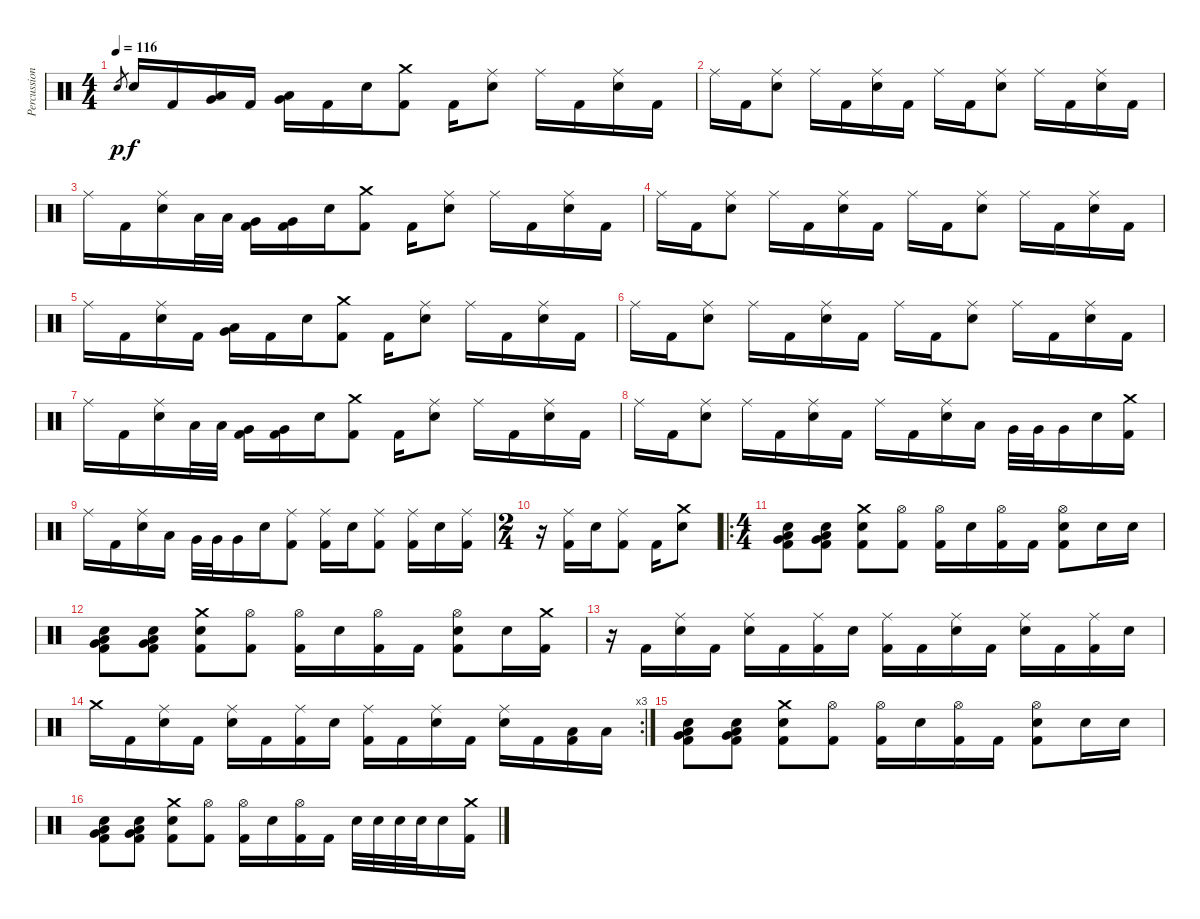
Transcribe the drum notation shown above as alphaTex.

\track ("Percussion" "Percussion") {instrument percussion}
\staff {score}
\articulation defaults
\ts (4 4)
\tempo 116
\clef neutral
\ks c "Electric Snare (hit)".8{gr dy p} "Electric Snare (hit)".16{dy f} "Kick (hit) 2".16
("Low Tom (hit)" "Very Low Tom (hit)").16 "Kick (hit) 2".16 ("Very Low Tom (hit)" "Low Tom (hit)").16 "Kick (hit) 2".16 "Electric Snare (hit)".16 ("Crash medium (hit)" "Kick (hit) 2").8 "Kick (hit) 2".16 ("Ride (middle)" "Electric Snare (hit)").8 "Ride (middle)".16 "Kick (hit) 2".16 ("Ride (middle)" "Electric Snare (hit)").16 "Kick (hit) 2".16 |
"Ride (middle)".16 "Kick (hit) 2".16 ("Ride (middle)" "Electric Snare (hit)").8 "Ride (middle)".16 "Kick (hit) 2".16 ("Ride (middle)" "Electric Snare (hit)").16 "Kick (hit) 2".16 "Ride (middle)".16 "Kick (hit) 2".16 ("Ride (middle)" "Electric Snare (hit)").8 "Ride (middle)".16 "Kick (hit) 2".16 ("Ride (middle)" "Electric Snare (hit)").16 "Kick (hit) 2".16 |
"Ride (middle)".16 "Kick (hit) 2".16 ("Ride (middle)" "Electric Snare (hit)").16 "Low Tom (hit)".32 "Low Tom (hit)".32 ("Very Low Tom (hit)" "Kick (hit) 2").16 ("Very Low Tom (hit)" "Kick (hit) 2").16 "Electric Snare (hit)".16 ("Crash medium (hit)" "Kick (hit) 2").8 "Kick (hit) 2".16 ("Ride (middle)" "Electric Snare (hit)").8 "Ride (middle)".16 "Kick (hit) 2".16 ("Ride (middle)" "Electric Snare (hit)").16 "Kick (hit) 2".16 |
"Ride (middle)".16 "Kick (hit) 2".16 ("Ride (middle)" "Electric Snare (hit)").8 "Ride (middle)".16 "Kick (hit) 2".16 ("Ride (middle)" "Electric Snare (hit)").16 "Kick (hit) 2".16 "Ride (middle)".16 "Kick (hit) 2".16 ("Ride (middle)" "Electric Snare (hit)").8 "Ride (middle)".16 "Kick (hit) 2".16 ("Ride (middle)" "Electric Snare (hit)").16 "Kick (hit) 2".16 |
"Ride (middle)".16 "Kick (hit) 2".16 ("Ride (middle)" "Electric Snare (hit)").16 "Kick (hit) 2".16 ("Low Tom (hit)" "Very Low Tom (hit)").16 "Kick (hit) 2".16 "Electric Snare (hit)".16 ("Crash medium (hit)" "Kick (hit) 2").8 "Kick (hit) 2".16 ("Ride (middle)" "Electric Snare (hit)").8 "Ride (middle)".16 "Kick (hit) 2".16 ("Ride (middle)" "Electric Snare (hit)").16 "Kick (hit) 2".16 |
"Ride (middle)".16 "Kick (hit) 2".16 ("Ride (middle)" "Electric Snare (hit)").8 "Ride (middle)".16 "Kick (hit) 2".16 ("Ride (middle)" "Electric Snare (hit)").16 "Kick (hit) 2".16 "Ride (middle)".16 "Kick (hit) 2".16 ("Ride (middle)" "Electric Snare (hit)").8 "Ride (middle)".16 "Kick (hit) 2".16 ("Ride (middle)" "Electric Snare (hit)").16 "Kick (hit) 2".16 |
"Ride (middle)".16 "Kick (hit) 2".16 ("Ride (middle)" "Electric Snare (hit)").16 "Low Tom (hit)".32 "Low Tom (hit)".32 ("Very Low Tom (hit)" "Kick (hit) 2").16 ("Very Low Tom (hit)" "Kick (hit) 2").16 "Electric Snare (hit)".16 ("Crash medium (hit)" "Kick (hit) 2").8 "Kick (hit) 2".16 ("Ride (middle)" "Electric Snare (hit)").8 "Ride (middle)".16 "Kick (hit) 2".16 ("Ride (middle)" "Electric Snare (hit)").16 "Kick (hit) 2".16 |
"Ride (middle)".16 "Kick (hit) 2".16 ("Ride (middle)" "Electric Snare (hit)").8 "Ride (middle)".16 "Kick (hit) 2".16 ("Ride (middle)" "Electric Snare (hit)").16 "Kick (hit) 2".16 "Ride (middle)".16 "Kick (hit) 2".16 ("Ride (middle)" "Electric Snare (hit)").16 "Low Tom (hit)".16 "Very Low Tom (hit)".32 "Very Low Tom (hit)".32 "Very Low Tom (hit)".16 "Electric Snare (hit)".16 ("Crash medium (hit)" "Kick (hit) 2").16 |
"Ride (middle)".16 "Kick (hit) 2".16 ("Ride (middle)" "Electric Snare (hit)").16 "Low Tom (hit)".16 "Very Low Tom (hit)".32 "Very Low Tom (hit)".32 "Very Low Tom (hit)".16 "Electric Snare (hit)".16 ("Ride (middle)" "Kick (hit) 2").8 ("Ride (middle)" "Kick (hit) 2").16 "Electric Snare (hit)".16 ("Ride (middle)" "Kick (hit) 2").8 ("Ride (middle)" "Kick (hit) 2").16 "Electric Snare (hit)".16 ("Ride (middle)" "Kick (hit) 2").16 |
\ts (2 4)
r.16 ("Ride (middle)" "Kick (hit) 2").16 "Electric Snare (hit)".16 ("Ride (middle)" "Kick (hit) 2").8 "Kick (hit) 2".16 ("Crash medium (hit)" "Electric Snare (hit)").8 |
\ro
\ts (4 4)
("Low Floor Tom (hit)" "Electric Snare (hit)" "Very Low Tom (hit)" "Kick (hit) 2").8 ("Low Floor Tom (hit)" "Electric Snare (hit)" "Very Low Tom (hit)" "Kick (hit) 2").8 ("Crash medium (hit)" "Electric Snare (hit)" "Kick (hit) 2").8 ("Hi-Hat (open)" "Kick (hit) 2").8 ("Hi-Hat (open)" "Kick (hit) 2").16 "Electric Snare (hit)".16 ("Hi-Hat (open)" "Kick (hit) 2").16 "Kick (hit) 2".16 ("Hi-Hat (open)" "Electric Snare (hit)" "Kick (hit) 2").8 "Electric Snare (hit)".16 "Electric Snare (hit)".16 |
("Electric Snare (hit)" "Low Floor Tom (hit)" "Very Low Tom (hit)" "Kick (hit) 2").8 ("Electric Snare (hit)" "Low Floor Tom (hit)" "Very Low Tom (hit)" "Kick (hit) 2").8 ("Crash medium (hit)" "Electric Snare (hit)" "Kick (hit) 2").8 ("Hi-Hat (open)" "Kick (hit) 2").8 ("Hi-Hat (open)" "Kick (hit) 2").16 "Electric Snare (hit)".16 ("Hi-Hat (open)" "Kick (hit) 2").16 "Kick (hit) 2".16 ("Hi-Hat (open)" "Electric Snare (hit)" "Kick (hit) 2").8 "Electric Snare (hit)".16 ("Crash medium (hit)" "Kick (hit) 2").16 |
r.16 "Kick (hit) 2".16 ("Ride (middle)" "Electric Snare (hit)").16 "Kick (hit) 2".16 ("Ride (middle)" "Electric Snare (hit)").16 "Kick (hit) 2".16 ("Ride (middle)" "Kick (hit) 2").16 "Electric Snare (hit)".16 ("Ride (middle)" "Kick (hit) 2").16 "Kick (hit) 2".16 ("Ride (middle)" "Electric Snare (hit)").16 "Kick (hit) 2".16 ("Ride (middle)" "Electric Snare (hit)").16 "Kick (hit) 2".16 ("Ride (middle)" "Kick (hit) 2").16 "Electric Snare (hit)".16 |
\rc 3 "Crash medium (hit)".16 "Kick (hit) 2".16
("Ride (middle)" "Electric Snare (hit)").16 "Kick (hit) 2".16 ("Ride (middle)" "Electric Snare (hit)").16 "Kick (hit) 2".16 ("Ride (middle)" "Kick (hit) 2").16 "Electric Snare (hit)".16 ("Ride (middle)" "Kick (hit) 2").16 "Kick (hit) 2".16 ("Ride (middle)" "Electric Snare (hit)").16 "Kick (hit) 2".16 ("Ride (middle)" "Electric Snare (hit)").16 "Kick (hit) 2".16 ("Low Tom (hit)" "Kick (hit) 2").16 "Low Tom (hit)".16 |
("Electric Snare (hit)" "Low Floor Tom (hit)" "Very Low Tom (hit)" "Kick (hit) 2").8 ("Electric Snare (hit)" "Low Floor Tom (hit)" "Very Low Tom (hit)" "Kick (hit) 2").8 ("Crash medium (hit)" "Electric Snare (hit)" "Kick (hit) 2").8 ("Hi-Hat (open)" "Kick (hit) 2").8 ("Hi-Hat (open)" "Kick (hit) 2").16 "Electric Snare (hit)".16 ("Hi-Hat (open)" "Kick (hit) 2").16 "Kick (hit) 2".16 ("Hi-Hat (open)" "Electric Snare (hit)" "Kick (hit) 2").8 "Electric Snare (hit)".16 "Electric Snare (hit)".16 |
("Electric Snare (hit)" "Low Floor Tom (hit)" "Very Low Tom (hit)" "Kick (hit) 2").8 ("Electric Snare (hit)" "Low Floor Tom (hit)" "Very Low Tom (hit)" "Kick (hit) 2").8 ("Crash medium (hit)" "Electric Snare (hit)" "Kick (hit) 2").8 ("Hi-Hat (open)" "Kick (hit) 2").8 ("Hi-Hat (open)" "Kick (hit) 2").16 "Electric Snare (hit)".16 ("Hi-Hat (open)" "Kick (hit) 2").16 "Kick (hit) 2".16 "Electric Snare (hit)".32 "Electric Snare (hit)".32 "Electric Snare (hit)".32 "Electric Snare (hit)".32 "Electric Snare (hit)".16 ("Crash medium (hit)" "Kick (hit) 2").16
